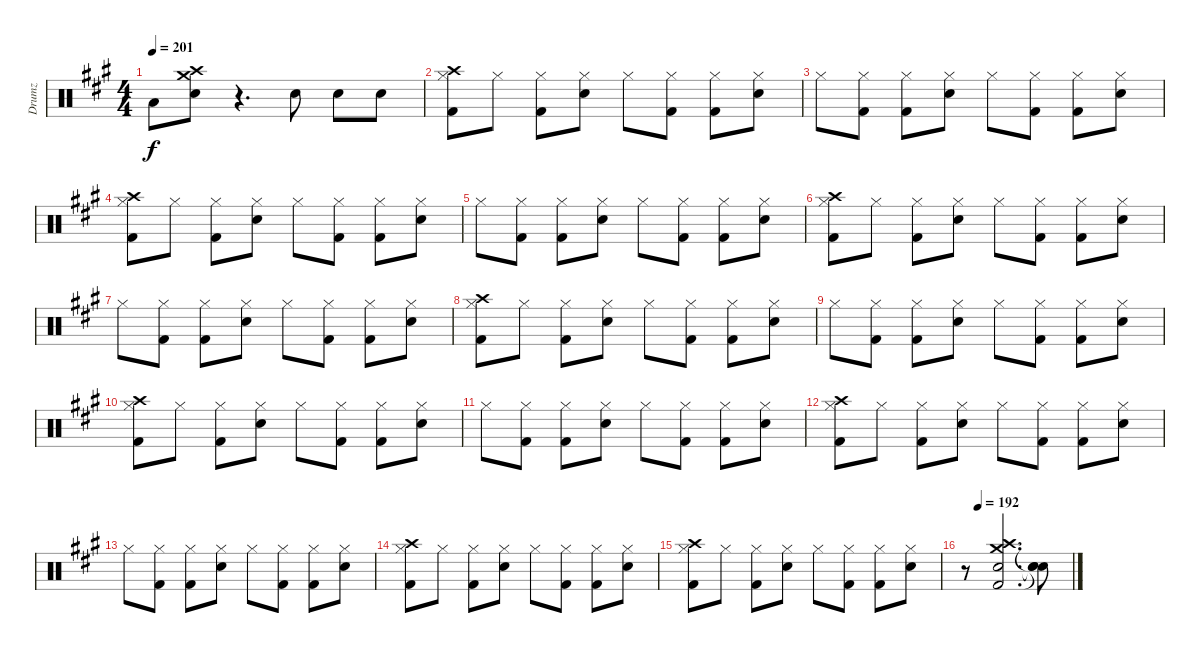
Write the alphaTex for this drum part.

\track ("Drumz" "Drumz") {instrument percussion}
\staff {score}
\articulation defaults
\ts (4 4)
\tempo 201
\clef neutral
\ks a "Low Tom (hit)".8{dy f}
("Snare (hit) 2" "Crash high (hit)" "Crash medium (hit)").8 r.4{d} "Snare (hit) 2".8 "Snare (hit) 2".8 "Snare (hit) 2".8 |
("Hi-Hat (closed)" "Kick (hit) 2" "Crash high (hit)").8 "Hi-Hat (closed)".8 ("Hi-Hat (closed)" "Kick (hit) 2").8 ("Hi-Hat (closed)" "Snare (hit) 2").8 "Hi-Hat (closed)".8 ("Hi-Hat (closed)" "Kick (hit) 2").8 ("Hi-Hat (closed)" "Kick (hit) 2").8 ("Hi-Hat (closed)" "Snare (hit) 2").8 |
"Hi-Hat (closed)".8 ("Hi-Hat (closed)" "Kick (hit) 2").8 ("Hi-Hat (closed)" "Kick (hit) 2").8 ("Hi-Hat (closed)" "Snare (hit) 2").8 "Hi-Hat (closed)".8 ("Hi-Hat (closed)" "Kick (hit) 2").8 ("Hi-Hat (closed)" "Kick (hit) 2").8 ("Hi-Hat (closed)" "Snare (hit) 2").8 |
("Hi-Hat (closed)" "Kick (hit) 2" "Crash high (hit)").8 "Hi-Hat (closed)".8 ("Hi-Hat (closed)" "Kick (hit) 2").8 ("Hi-Hat (closed)" "Snare (hit) 2").8 "Hi-Hat (closed)".8 ("Hi-Hat (closed)" "Kick (hit) 2").8 ("Hi-Hat (closed)" "Kick (hit) 2").8 ("Hi-Hat (closed)" "Snare (hit) 2").8 |
"Hi-Hat (closed)".8 ("Hi-Hat (closed)" "Kick (hit) 2").8 ("Hi-Hat (closed)" "Kick (hit) 2").8 ("Hi-Hat (closed)" "Snare (hit) 2").8 "Hi-Hat (closed)".8 ("Hi-Hat (closed)" "Kick (hit) 2").8 ("Hi-Hat (closed)" "Kick (hit) 2").8 ("Hi-Hat (closed)" "Snare (hit) 2").8 |
("Hi-Hat (closed)" "Kick (hit) 2" "Crash high (hit)").8 "Hi-Hat (closed)".8 ("Hi-Hat (closed)" "Kick (hit) 2").8 ("Hi-Hat (closed)" "Snare (hit) 2").8 "Hi-Hat (closed)".8 ("Hi-Hat (closed)" "Kick (hit) 2").8 ("Hi-Hat (closed)" "Kick (hit) 2").8 ("Hi-Hat (closed)" "Snare (hit) 2").8 |
"Hi-Hat (closed)".8 ("Hi-Hat (closed)" "Kick (hit) 2").8 ("Hi-Hat (closed)" "Kick (hit) 2").8 ("Hi-Hat (closed)" "Snare (hit) 2").8 "Hi-Hat (closed)".8 ("Hi-Hat (closed)" "Kick (hit) 2").8 ("Hi-Hat (closed)" "Kick (hit) 2").8 ("Hi-Hat (closed)" "Snare (hit) 2").8 |
("Hi-Hat (closed)" "Kick (hit) 2" "Crash high (hit)").8 "Hi-Hat (closed)".8 ("Hi-Hat (closed)" "Kick (hit) 2").8 ("Hi-Hat (closed)" "Snare (hit) 2").8 "Hi-Hat (closed)".8 ("Hi-Hat (closed)" "Kick (hit) 2").8 ("Hi-Hat (closed)" "Kick (hit) 2").8 ("Hi-Hat (closed)" "Snare (hit) 2").8 |
"Hi-Hat (closed)".8 ("Hi-Hat (closed)" "Kick (hit) 2").8 ("Hi-Hat (closed)" "Kick (hit) 2").8 ("Hi-Hat (closed)" "Snare (hit) 2").8 "Hi-Hat (closed)".8 ("Hi-Hat (closed)" "Kick (hit) 2").8 ("Hi-Hat (closed)" "Kick (hit) 2").8 ("Hi-Hat (closed)" "Snare (hit) 2").8 |
("Hi-Hat (closed)" "Kick (hit) 2" "Crash high (hit)").8 "Hi-Hat (closed)".8 ("Hi-Hat (closed)" "Kick (hit) 2").8 ("Hi-Hat (closed)" "Snare (hit) 2").8 "Hi-Hat (closed)".8 ("Hi-Hat (closed)" "Kick (hit) 2").8 ("Hi-Hat (closed)" "Kick (hit) 2").8 ("Hi-Hat (closed)" "Snare (hit) 2").8 |
"Hi-Hat (closed)".8 ("Hi-Hat (closed)" "Kick (hit) 2").8 ("Hi-Hat (closed)" "Kick (hit) 2").8 ("Hi-Hat (closed)" "Snare (hit) 2").8 "Hi-Hat (closed)".8 ("Hi-Hat (closed)" "Kick (hit) 2").8 ("Hi-Hat (closed)" "Kick (hit) 2").8 ("Hi-Hat (closed)" "Snare (hit) 2").8 |
("Hi-Hat (closed)" "Kick (hit) 2" "Crash high (hit)").8 "Hi-Hat (closed)".8 ("Hi-Hat (closed)" "Kick (hit) 2").8 ("Hi-Hat (closed)" "Snare (hit) 2").8 "Hi-Hat (closed)".8 ("Hi-Hat (closed)" "Kick (hit) 2").8 ("Hi-Hat (closed)" "Kick (hit) 2").8 ("Hi-Hat (closed)" "Snare (hit) 2").8 |
"Hi-Hat (closed)".8 ("Hi-Hat (closed)" "Kick (hit) 2").8 ("Hi-Hat (closed)" "Kick (hit) 2").8 ("Hi-Hat (closed)" "Snare (hit) 2").8 "Hi-Hat (closed)".8 ("Hi-Hat (closed)" "Kick (hit) 2").8 ("Hi-Hat (closed)" "Kick (hit) 2").8 ("Hi-Hat (closed)" "Snare (hit) 2").8 |
("Hi-Hat (closed)" "Kick (hit) 2" "Crash high (hit)").8 "Hi-Hat (closed)".8 ("Hi-Hat (closed)" "Kick (hit) 2").8 ("Hi-Hat (closed)" "Snare (hit) 2").8 "Hi-Hat (closed)".8 ("Hi-Hat (closed)" "Kick (hit) 2").8 ("Hi-Hat (closed)" "Kick (hit) 2").8 ("Hi-Hat (closed)" "Snare (hit) 2").8 |
("Hi-Hat (closed)" "Kick (hit) 2" "Crash high (hit)").8 "Hi-Hat (closed)".8 ("Hi-Hat (closed)" "Kick (hit) 2").8 ("Hi-Hat (closed)" "Snare (hit) 2").8 "Hi-Hat (closed)".8 ("Hi-Hat (closed)" "Kick (hit) 2").8 ("Hi-Hat (closed)" "Kick (hit) 2").8 ("Hi-Hat (closed)" "Snare (hit) 2").8 |
\tempo (192 0.125)
r.8 ("Kick (hit) 2" "Snare (hit) 2" "Crash high (hit)" "Crash medium (hit)").2{d} ("Snare (hit)"{t} "Snare (hit)"{t} "Snare (hit)"{t}).8
